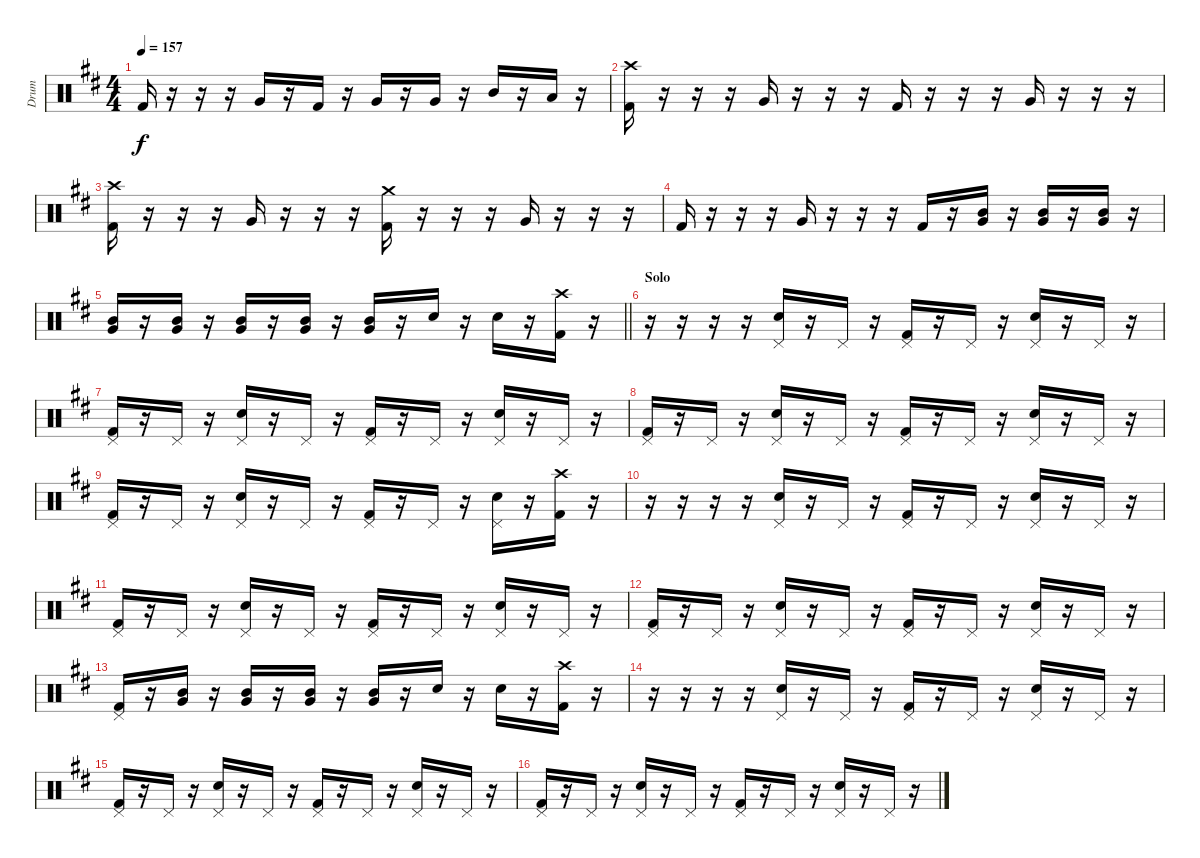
\track ("Drum" "Drum") {instrument percussion}
\staff {score}
\articulation defaults
\ts (4 4)
\tempo 157
\clef neutral
\ks d "Kick (hit) 2".16{dy f}
r.16 r.16 r.16 "Very Low Tom (hit)".16 r.16 "Kick (hit) 2".16 r.16 "Very Low Tom (hit)".16 r.16 "Very Low Tom (hit)".16 r.16 "Mid Tom (hit)".16 r.16 "Low Tom (hit)".16 r.16 |
("Kick (hit) 2" "Crash high (hit)").16 r.16 r.16 r.16 "Very Low Tom (hit)".16 r.16 r.16 r.16 "Kick (hit) 2".16 r.16 r.16 r.16 "Very Low Tom (hit)".16 r.16 r.16 r.16 |
("Kick (hit) 2" "Crash high (hit)").16 r.16 r.16 r.16 "Very Low Tom (hit)".16 r.16 r.16 r.16 ("Kick (hit) 2" "Crash medium (hit)").16 r.16 r.16 r.16 "Very Low Tom (hit)".16 r.16 r.16 r.16 |
"Kick (hit) 2".16 r.16 r.16 r.16 "Very Low Tom (hit)".16 r.16 r.16 r.16 "Kick (hit) 2".16 r.16 ("Very Low Tom (hit)" "Mid Tom (hit)").16 r.16 ("Very Low Tom (hit)" "Mid Tom (hit)").16 r.16 ("Very Low Tom (hit)" "Mid Tom (hit)").16 r.16 |
\barLineRight lightlight
("Very Low Tom (hit)" "Mid Tom (hit)").16 r.16 ("Very Low Tom (hit)" "Mid Tom (hit)").16 r.16 ("Very Low Tom (hit)" "Mid Tom (hit)").16 r.16 ("Very Low Tom (hit)" "Mid Tom (hit)").16 r.16 ("Very Low Tom (hit)" "Mid Tom (hit)").16 r.16 "Electric Snare (hit)".16 r.16 "Electric Snare (hit)".16 r.16 ("Kick (hit) 2" "Crash high (hit)").16 r.16 |
\section ("" "Solo")
r.16 r.16 r.16 r.16 ("Pedal Hi-Hat (hit)" "Electric Snare (hit)").16 r.16 "Pedal Hi-Hat (hit)".16 r.16 ("Pedal Hi-Hat (hit)" "Kick (hit) 2").16 r.16 "Pedal Hi-Hat (hit)".16 r.16 ("Pedal Hi-Hat (hit)" "Electric Snare (hit)").16 r.16 "Pedal Hi-Hat (hit)".16 r.16 |
("Kick (hit) 2" "Pedal Hi-Hat (hit)").16 r.16 "Pedal Hi-Hat (hit)".16 r.16 ("Pedal Hi-Hat (hit)" "Electric Snare (hit)").16 r.16 "Pedal Hi-Hat (hit)".16 r.16 ("Pedal Hi-Hat (hit)" "Kick (hit) 2").16 r.16 "Pedal Hi-Hat (hit)".16 r.16 ("Pedal Hi-Hat (hit)" "Electric Snare (hit)").16 r.16 "Pedal Hi-Hat (hit)".16 r.16 |
("Kick (hit) 2" "Pedal Hi-Hat (hit)").16 r.16 "Pedal Hi-Hat (hit)".16 r.16 ("Pedal Hi-Hat (hit)" "Electric Snare (hit)").16 r.16 "Pedal Hi-Hat (hit)".16 r.16 ("Pedal Hi-Hat (hit)" "Kick (hit) 2").16 r.16 "Pedal Hi-Hat (hit)".16 r.16 ("Pedal Hi-Hat (hit)" "Electric Snare (hit)").16 r.16 "Pedal Hi-Hat (hit)".16 r.16 |
("Kick (hit) 2" "Pedal Hi-Hat (hit)").16 r.16 "Pedal Hi-Hat (hit)".16 r.16 ("Pedal Hi-Hat (hit)" "Electric Snare (hit)").16 r.16 "Pedal Hi-Hat (hit)".16 r.16 ("Pedal Hi-Hat (hit)" "Kick (hit) 2").16 r.16 "Pedal Hi-Hat (hit)".16 r.16 ("Pedal Hi-Hat (hit)" "Electric Snare (hit)").16 r.16 ("Kick (hit) 2" "Crash high (hit)").16 r.16 |
r.16 r.16 r.16 r.16 ("Pedal Hi-Hat (hit)" "Electric Snare (hit)").16 r.16 "Pedal Hi-Hat (hit)".16 r.16 ("Pedal Hi-Hat (hit)" "Kick (hit) 2").16 r.16 "Pedal Hi-Hat (hit)".16 r.16 ("Pedal Hi-Hat (hit)" "Electric Snare (hit)").16 r.16 "Pedal Hi-Hat (hit)".16 r.16 |
("Kick (hit) 2" "Pedal Hi-Hat (hit)").16 r.16 "Pedal Hi-Hat (hit)".16 r.16 ("Pedal Hi-Hat (hit)" "Electric Snare (hit)").16 r.16 "Pedal Hi-Hat (hit)".16 r.16 ("Pedal Hi-Hat (hit)" "Kick (hit) 2").16 r.16 "Pedal Hi-Hat (hit)".16 r.16 ("Pedal Hi-Hat (hit)" "Electric Snare (hit)").16 r.16 "Pedal Hi-Hat (hit)".16 r.16 |
("Kick (hit) 2" "Pedal Hi-Hat (hit)").16 r.16 "Pedal Hi-Hat (hit)".16 r.16 ("Pedal Hi-Hat (hit)" "Electric Snare (hit)").16 r.16 "Pedal Hi-Hat (hit)".16 r.16 ("Pedal Hi-Hat (hit)" "Kick (hit) 2").16 r.16 "Pedal Hi-Hat (hit)".16 r.16 ("Pedal Hi-Hat (hit)" "Electric Snare (hit)").16 r.16 "Pedal Hi-Hat (hit)".16 r.16 |
("Kick (hit) 2" "Pedal Hi-Hat (hit)").16 r.16 ("Very Low Tom (hit)" "Mid Tom (hit)").16 r.16 ("Very Low Tom (hit)" "Mid Tom (hit)").16 r.16 ("Very Low Tom (hit)" "Mid Tom (hit)").16 r.16 ("Very Low Tom (hit)" "Mid Tom (hit)").16 r.16 "Electric Snare (hit)".16 r.16 "Electric Snare (hit)".16 r.16 ("Kick (hit) 2" "Crash high (hit)").16 r.16 |
r.16 r.16 r.16 r.16 ("Pedal Hi-Hat (hit)" "Electric Snare (hit)").16 r.16 "Pedal Hi-Hat (hit)".16 r.16 ("Pedal Hi-Hat (hit)" "Kick (hit) 2").16 r.16 "Pedal Hi-Hat (hit)".16 r.16 ("Pedal Hi-Hat (hit)" "Electric Snare (hit)").16 r.16 "Pedal Hi-Hat (hit)".16 r.16 |
("Kick (hit) 2" "Pedal Hi-Hat (hit)").16 r.16 "Pedal Hi-Hat (hit)".16 r.16 ("Pedal Hi-Hat (hit)" "Electric Snare (hit)").16 r.16 "Pedal Hi-Hat (hit)".16 r.16 ("Pedal Hi-Hat (hit)" "Kick (hit) 2").16 r.16 "Pedal Hi-Hat (hit)".16 r.16 ("Pedal Hi-Hat (hit)" "Electric Snare (hit)").16 r.16 "Pedal Hi-Hat (hit)".16 r.16 |
("Kick (hit) 2" "Pedal Hi-Hat (hit)").16 r.16 "Pedal Hi-Hat (hit)".16 r.16 ("Pedal Hi-Hat (hit)" "Electric Snare (hit)").16 r.16 "Pedal Hi-Hat (hit)".16 r.16 ("Pedal Hi-Hat (hit)" "Kick (hit) 2").16 r.16 "Pedal Hi-Hat (hit)".16 r.16 ("Pedal Hi-Hat (hit)" "Electric Snare (hit)").16 r.16 "Pedal Hi-Hat (hit)".16 r.16
